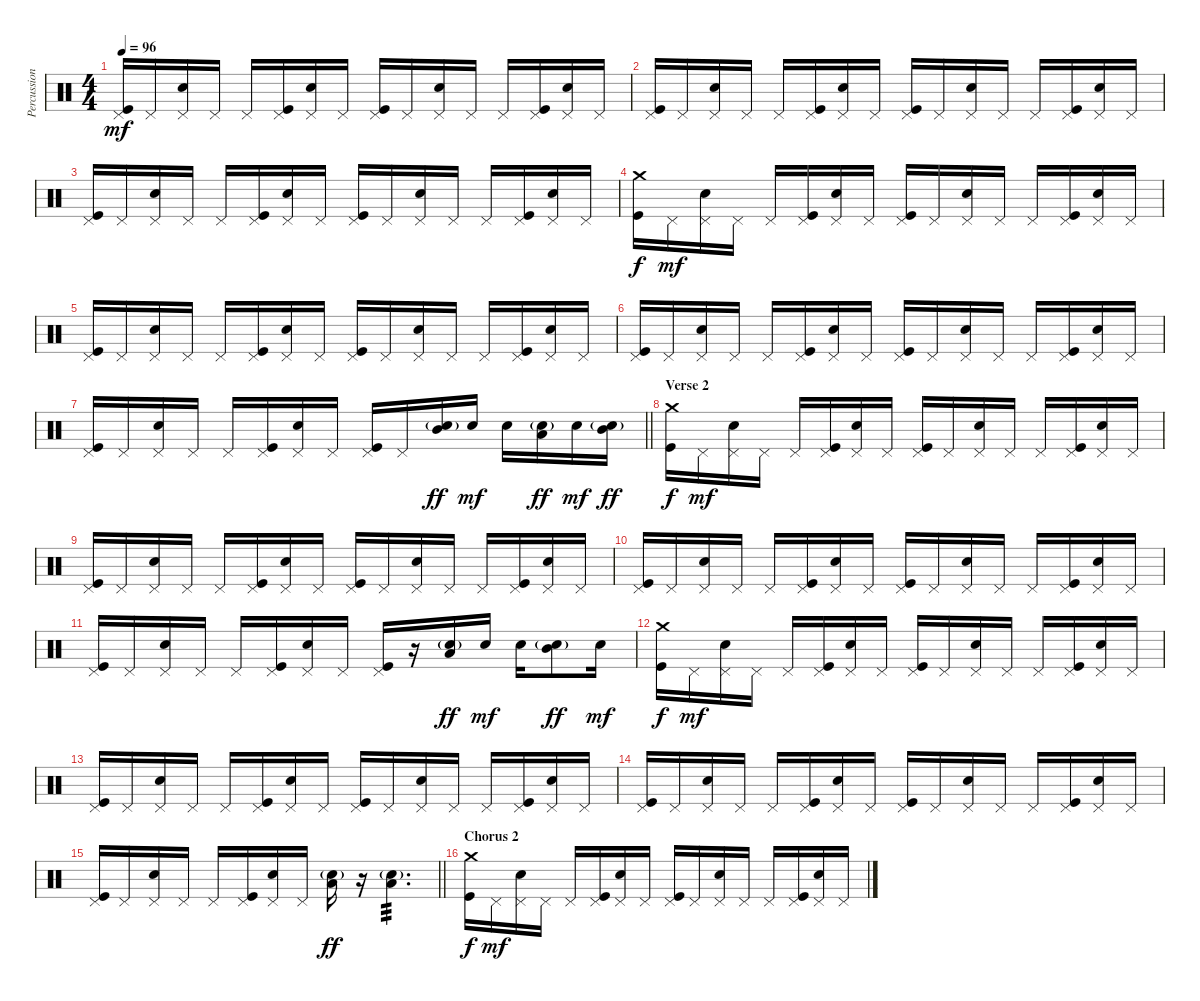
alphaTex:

\track ("Percussion" "Percussion") {instrument percussion}
\staff {score}
\articulation defaults
\ts (4 4)
\tempo 96
\clef neutral
\ks c
("Pedal Hi-Hat (hit)" "Kick (hit)").16{dy mf} "Pedal Hi-Hat (hit)".16 ("Pedal Hi-Hat (hit)" "Snare (hit) 2").16 "Pedal Hi-Hat (hit)".16 "Pedal Hi-Hat (hit)".16 ("Pedal Hi-Hat (hit)" "Kick (hit)").16 ("Pedal Hi-Hat (hit)" "Snare (hit) 2").16 "Pedal Hi-Hat (hit)".16 ("Pedal Hi-Hat (hit)" "Kick (hit)").16 "Pedal Hi-Hat (hit)".16 ("Pedal Hi-Hat (hit)" "Snare (hit) 2").16 "Pedal Hi-Hat (hit)".16 "Pedal Hi-Hat (hit)".16 ("Pedal Hi-Hat (hit)" "Kick (hit)").16 ("Pedal Hi-Hat (hit)" "Snare (hit) 2").16 "Pedal Hi-Hat (hit)".16 |
("Pedal Hi-Hat (hit)" "Kick (hit)").16 "Pedal Hi-Hat (hit)".16 ("Pedal Hi-Hat (hit)" "Snare (hit) 2").16 "Pedal Hi-Hat (hit)".16 "Pedal Hi-Hat (hit)".16 ("Pedal Hi-Hat (hit)" "Kick (hit)").16 ("Pedal Hi-Hat (hit)" "Snare (hit) 2").16 "Pedal Hi-Hat (hit)".16 ("Pedal Hi-Hat (hit)" "Kick (hit)").16 "Pedal Hi-Hat (hit)".16 ("Pedal Hi-Hat (hit)" "Snare (hit) 2").16 "Pedal Hi-Hat (hit)".16 "Pedal Hi-Hat (hit)".16 ("Pedal Hi-Hat (hit)" "Kick (hit)").16 ("Pedal Hi-Hat (hit)" "Snare (hit) 2").16 "Pedal Hi-Hat (hit)".16 |
("Pedal Hi-Hat (hit)" "Kick (hit)").16 "Pedal Hi-Hat (hit)".16 ("Pedal Hi-Hat (hit)" "Snare (hit) 2").16 "Pedal Hi-Hat (hit)".16 "Pedal Hi-Hat (hit)".16 ("Pedal Hi-Hat (hit)" "Kick (hit)").16 ("Pedal Hi-Hat (hit)" "Snare (hit) 2").16 "Pedal Hi-Hat (hit)".16 ("Pedal Hi-Hat (hit)" "Kick (hit)").16 "Pedal Hi-Hat (hit)".16 ("Pedal Hi-Hat (hit)" "Snare (hit) 2").16 "Pedal Hi-Hat (hit)".16 "Pedal Hi-Hat (hit)".16 ("Pedal Hi-Hat (hit)" "Kick (hit)").16 ("Pedal Hi-Hat (hit)" "Snare (hit) 2").16 "Pedal Hi-Hat (hit)".16 |
("Crash medium (hit)" "Kick (hit)").16{dy f} "Pedal Hi-Hat (hit)".16{dy mf} ("Pedal Hi-Hat (hit)" "Snare (hit) 2").16 "Pedal Hi-Hat (hit)".16 "Pedal Hi-Hat (hit)".16 ("Pedal Hi-Hat (hit)" "Kick (hit)").16 ("Pedal Hi-Hat (hit)" "Snare (hit) 2").16 "Pedal Hi-Hat (hit)".16 ("Pedal Hi-Hat (hit)" "Kick (hit)").16 "Pedal Hi-Hat (hit)".16 ("Pedal Hi-Hat (hit)" "Snare (hit) 2").16 "Pedal Hi-Hat (hit)".16 "Pedal Hi-Hat (hit)".16 ("Pedal Hi-Hat (hit)" "Kick (hit)").16 ("Pedal Hi-Hat (hit)" "Snare (hit) 2").16 "Pedal Hi-Hat (hit)".16 |
("Pedal Hi-Hat (hit)" "Kick (hit)").16 "Pedal Hi-Hat (hit)".16 ("Pedal Hi-Hat (hit)" "Snare (hit) 2").16 "Pedal Hi-Hat (hit)".16 "Pedal Hi-Hat (hit)".16 ("Pedal Hi-Hat (hit)" "Kick (hit)").16 ("Pedal Hi-Hat (hit)" "Snare (hit) 2").16 "Pedal Hi-Hat (hit)".16 ("Pedal Hi-Hat (hit)" "Kick (hit)").16 "Pedal Hi-Hat (hit)".16 ("Pedal Hi-Hat (hit)" "Snare (hit) 2").16 "Pedal Hi-Hat (hit)".16 "Pedal Hi-Hat (hit)".16 ("Pedal Hi-Hat (hit)" "Kick (hit)").16 ("Pedal Hi-Hat (hit)" "Snare (hit) 2").16 "Pedal Hi-Hat (hit)".16 |
("Pedal Hi-Hat (hit)" "Kick (hit)").16 "Pedal Hi-Hat (hit)".16 ("Pedal Hi-Hat (hit)" "Snare (hit) 2").16 "Pedal Hi-Hat (hit)".16 "Pedal Hi-Hat (hit)".16 ("Pedal Hi-Hat (hit)" "Kick (hit)").16 ("Pedal Hi-Hat (hit)" "Snare (hit) 2").16 "Pedal Hi-Hat (hit)".16 ("Pedal Hi-Hat (hit)" "Kick (hit)").16 "Pedal Hi-Hat (hit)".16 ("Pedal Hi-Hat (hit)" "Snare (hit) 2").16 "Pedal Hi-Hat (hit)".16 "Pedal Hi-Hat (hit)".16 ("Pedal Hi-Hat (hit)" "Kick (hit)").16 ("Pedal Hi-Hat (hit)" "Snare (hit) 2").16 "Pedal Hi-Hat (hit)".16 |
\barLineRight lightlight
("Pedal Hi-Hat (hit)" "Kick (hit)").16 "Pedal Hi-Hat (hit)".16 ("Pedal Hi-Hat (hit)" "Snare (hit) 2").16 "Pedal Hi-Hat (hit)".16 "Pedal Hi-Hat (hit)".16 ("Pedal Hi-Hat (hit)" "Kick (hit)").16 ("Pedal Hi-Hat (hit)" "Snare (hit) 2").16 "Pedal Hi-Hat (hit)".16 ("Pedal Hi-Hat (hit)" "Kick (hit)").16 "Pedal Hi-Hat (hit)".16 ("Snare (hit) 2"{g} "Mid Tom (hit)").16{dy ff} "Electric Snare (hit)".16{dy mf} "Electric Snare (hit)".16 ("Snare (hit) 2"{g} "Low Tom (hit)").16{dy ff} "Electric Snare (hit)".16{dy mf} ("Snare (hit) 2"{g} "Mid Tom (hit)").16{dy ff} |
\section ("" "Verse 2")
("Crash medium (hit)" "Kick (hit)").16{dy f} "Pedal Hi-Hat (hit)".16{dy mf} ("Pedal Hi-Hat (hit)" "Snare (hit) 2").16 "Pedal Hi-Hat (hit)".16 "Pedal Hi-Hat (hit)".16 ("Pedal Hi-Hat (hit)" "Kick (hit)").16 ("Pedal Hi-Hat (hit)" "Snare (hit) 2").16 "Pedal Hi-Hat (hit)".16 ("Pedal Hi-Hat (hit)" "Kick (hit)").16 "Pedal Hi-Hat (hit)".16 ("Pedal Hi-Hat (hit)" "Snare (hit) 2").16 "Pedal Hi-Hat (hit)".16 "Pedal Hi-Hat (hit)".16 ("Pedal Hi-Hat (hit)" "Kick (hit)").16 ("Pedal Hi-Hat (hit)" "Snare (hit) 2").16 "Pedal Hi-Hat (hit)".16 |
("Pedal Hi-Hat (hit)" "Kick (hit)").16 "Pedal Hi-Hat (hit)".16 ("Pedal Hi-Hat (hit)" "Snare (hit) 2").16 "Pedal Hi-Hat (hit)".16 "Pedal Hi-Hat (hit)".16 ("Pedal Hi-Hat (hit)" "Kick (hit)").16 ("Pedal Hi-Hat (hit)" "Snare (hit) 2").16 "Pedal Hi-Hat (hit)".16 ("Pedal Hi-Hat (hit)" "Kick (hit)").16 "Pedal Hi-Hat (hit)".16 ("Pedal Hi-Hat (hit)" "Snare (hit) 2").16 "Pedal Hi-Hat (hit)".16 "Pedal Hi-Hat (hit)".16 ("Pedal Hi-Hat (hit)" "Kick (hit)").16 ("Pedal Hi-Hat (hit)" "Snare (hit) 2").16 "Pedal Hi-Hat (hit)".16 |
("Pedal Hi-Hat (hit)" "Kick (hit)").16 "Pedal Hi-Hat (hit)".16 ("Pedal Hi-Hat (hit)" "Snare (hit) 2").16 "Pedal Hi-Hat (hit)".16 "Pedal Hi-Hat (hit)".16 ("Pedal Hi-Hat (hit)" "Kick (hit)").16 ("Pedal Hi-Hat (hit)" "Snare (hit) 2").16 "Pedal Hi-Hat (hit)".16 ("Pedal Hi-Hat (hit)" "Kick (hit)").16 "Pedal Hi-Hat (hit)".16 ("Pedal Hi-Hat (hit)" "Snare (hit) 2").16 "Pedal Hi-Hat (hit)".16 "Pedal Hi-Hat (hit)".16 ("Pedal Hi-Hat (hit)" "Kick (hit)").16 ("Pedal Hi-Hat (hit)" "Snare (hit) 2").16 "Pedal Hi-Hat (hit)".16 |
("Pedal Hi-Hat (hit)" "Kick (hit)").16 "Pedal Hi-Hat (hit)".16 ("Pedal Hi-Hat (hit)" "Snare (hit) 2").16 "Pedal Hi-Hat (hit)".16 "Pedal Hi-Hat (hit)".16 ("Pedal Hi-Hat (hit)" "Kick (hit)").16 ("Pedal Hi-Hat (hit)" "Snare (hit) 2").16 "Pedal Hi-Hat (hit)".16 ("Pedal Hi-Hat (hit)" "Kick (hit)").16 r.16 ("Snare (hit) 2"{g} "Low Tom (hit)").16{dy ff} "Electric Snare (hit)".16{dy mf} "Electric Snare (hit)".16 ("Snare (hit) 2"{g} "Mid Tom (hit)").8{dy ff} "Electric Snare (hit)".16{dy mf} |
("Crash medium (hit)" "Kick (hit)").16{dy f} "Pedal Hi-Hat (hit)".16{dy mf} ("Pedal Hi-Hat (hit)" "Snare (hit) 2").16 "Pedal Hi-Hat (hit)".16 "Pedal Hi-Hat (hit)".16 ("Pedal Hi-Hat (hit)" "Kick (hit)").16 ("Pedal Hi-Hat (hit)" "Snare (hit) 2").16 "Pedal Hi-Hat (hit)".16 ("Pedal Hi-Hat (hit)" "Kick (hit)").16 "Pedal Hi-Hat (hit)".16 ("Pedal Hi-Hat (hit)" "Snare (hit) 2").16 "Pedal Hi-Hat (hit)".16 "Pedal Hi-Hat (hit)".16 ("Pedal Hi-Hat (hit)" "Kick (hit)").16 ("Pedal Hi-Hat (hit)" "Snare (hit) 2").16 "Pedal Hi-Hat (hit)".16 |
("Pedal Hi-Hat (hit)" "Kick (hit)").16 "Pedal Hi-Hat (hit)".16 ("Pedal Hi-Hat (hit)" "Snare (hit) 2").16 "Pedal Hi-Hat (hit)".16 "Pedal Hi-Hat (hit)".16 ("Pedal Hi-Hat (hit)" "Kick (hit)").16 ("Pedal Hi-Hat (hit)" "Snare (hit) 2").16 "Pedal Hi-Hat (hit)".16 ("Pedal Hi-Hat (hit)" "Kick (hit)").16 "Pedal Hi-Hat (hit)".16 ("Pedal Hi-Hat (hit)" "Snare (hit) 2").16 "Pedal Hi-Hat (hit)".16 "Pedal Hi-Hat (hit)".16 ("Pedal Hi-Hat (hit)" "Kick (hit)").16 ("Pedal Hi-Hat (hit)" "Snare (hit) 2").16 "Pedal Hi-Hat (hit)".16 |
("Pedal Hi-Hat (hit)" "Kick (hit)").16 "Pedal Hi-Hat (hit)".16 ("Pedal Hi-Hat (hit)" "Snare (hit) 2").16 "Pedal Hi-Hat (hit)".16 "Pedal Hi-Hat (hit)".16 ("Pedal Hi-Hat (hit)" "Kick (hit)").16 ("Pedal Hi-Hat (hit)" "Snare (hit) 2").16 "Pedal Hi-Hat (hit)".16 ("Pedal Hi-Hat (hit)" "Kick (hit)").16 "Pedal Hi-Hat (hit)".16 ("Pedal Hi-Hat (hit)" "Snare (hit) 2").16 "Pedal Hi-Hat (hit)".16 "Pedal Hi-Hat (hit)".16 ("Pedal Hi-Hat (hit)" "Kick (hit)").16 ("Pedal Hi-Hat (hit)" "Snare (hit) 2").16 "Pedal Hi-Hat (hit)".16 |
\barLineRight lightlight
("Pedal Hi-Hat (hit)" "Kick (hit)").16 "Pedal Hi-Hat (hit)".16 ("Pedal Hi-Hat (hit)" "Snare (hit) 2").16 "Pedal Hi-Hat (hit)".16 "Pedal Hi-Hat (hit)".16 ("Pedal Hi-Hat (hit)" "Kick (hit)").16 ("Pedal Hi-Hat (hit)" "Snare (hit) 2").16 "Pedal Hi-Hat (hit)".16 ("Snare (hit) 2"{g} "Low Tom (hit)").16{dy ff} r.16 ("Snare (hit) 2"{g} "Low Tom (hit)").4{d tp 3} |
\section ("" "Chorus 2")
("Crash medium (hit)" "Kick (hit)").16{dy f} "Pedal Hi-Hat (hit)".16{dy mf} ("Pedal Hi-Hat (hit)" "Snare (hit) 2").16 "Pedal Hi-Hat (hit)".16 "Pedal Hi-Hat (hit)".16 ("Pedal Hi-Hat (hit)" "Kick (hit)").16 ("Pedal Hi-Hat (hit)" "Snare (hit) 2").16 "Pedal Hi-Hat (hit)".16 ("Pedal Hi-Hat (hit)" "Kick (hit)").16 "Pedal Hi-Hat (hit)".16 ("Pedal Hi-Hat (hit)" "Snare (hit) 2").16 "Pedal Hi-Hat (hit)".16 "Pedal Hi-Hat (hit)".16 ("Pedal Hi-Hat (hit)" "Kick (hit)").16 ("Pedal Hi-Hat (hit)" "Snare (hit) 2").16 "Pedal Hi-Hat (hit)".16
